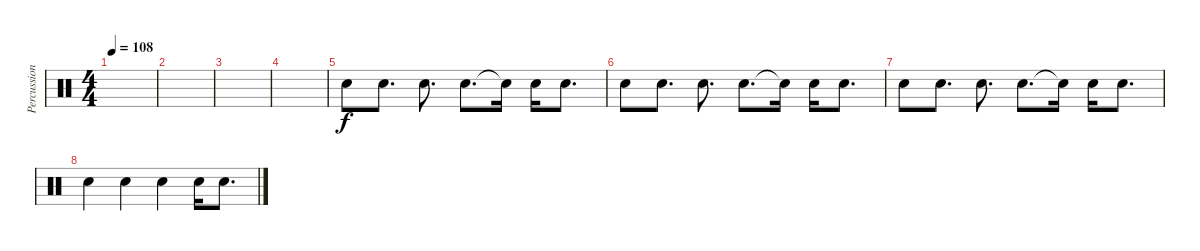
\track ("Percussion" "Percussion") {instrument percussion}
\staff {score}
\articulation defaults
\ts (4 4)
\tempo 108
\clef neutral
\ks c
|
|
|
|
"Snare (hit) 2".8 "Snare (hit) 2".8{d} "Snare (hit) 2".8{d} "Snare (hit) 2".8{d} "Snare (hit) 2"{t}.16 "Snare (hit) 2".16 "Snare (hit) 2".8{d} |
"Snare (hit) 2".8 "Snare (hit) 2".8{d} "Snare (hit) 2".8{d} "Snare (hit) 2".8{d} "Snare (hit) 2"{t}.16 "Snare (hit) 2".16 "Snare (hit) 2".8{d} |
"Snare (hit) 2".8 "Snare (hit) 2".8{d} "Snare (hit) 2".8{d} "Snare (hit) 2".8{d} "Snare (hit) 2"{t}.16 "Snare (hit) 2".16 "Snare (hit) 2".8{d} |
"Snare (hit) 2".4 "Snare (hit) 2".4 "Snare (hit) 2".4 "Snare (hit) 2".16 "Snare (hit) 2".8{d}
